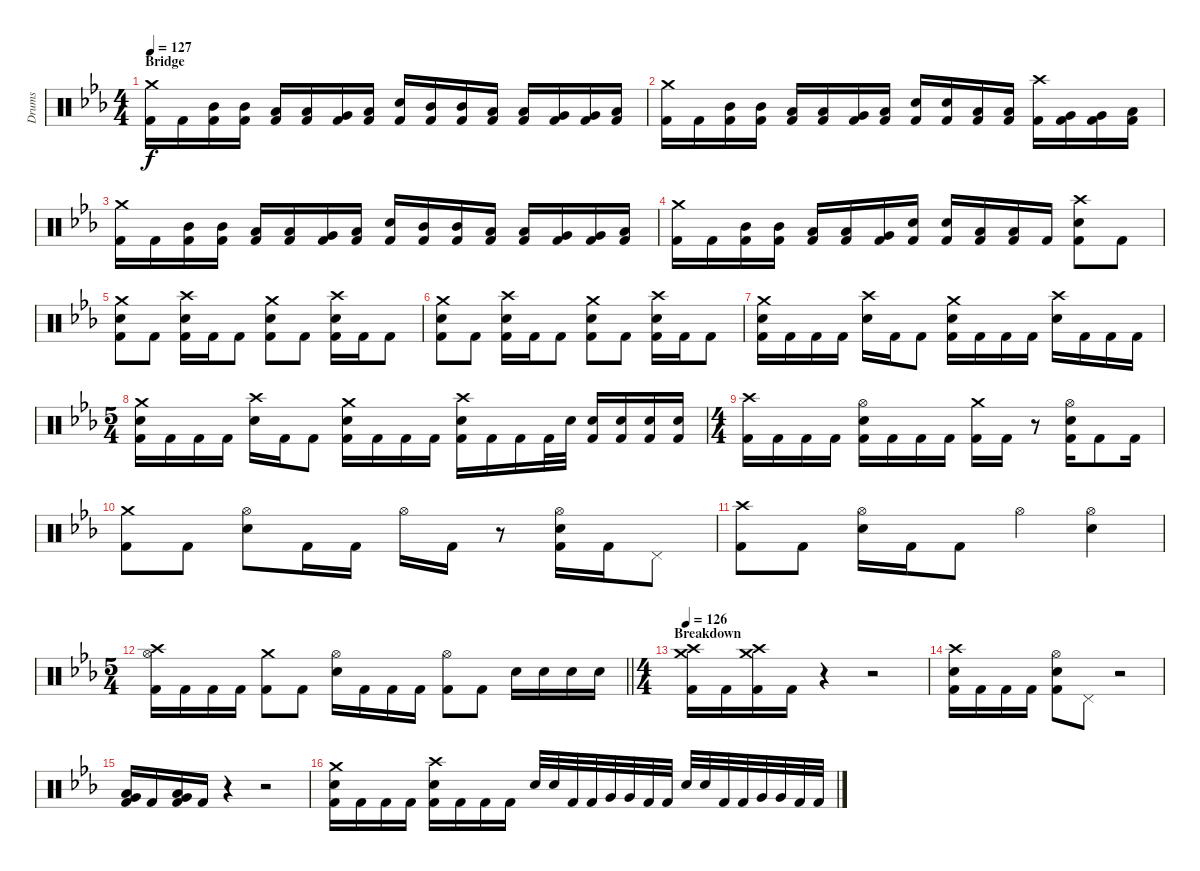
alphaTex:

\track ("Drums" "Drums") {instrument percussion}
\staff {score}
\articulation defaults
\ts (4 4)
\section ("" "Bridge")
\tempo 127
\clef neutral
\ks cminor
("Crash medium (hit)" "Kick (hit) 2").16{dy f} "Kick (hit) 2".16 ("Mid Tom (hit)" "Kick (hit) 2").16 ("Mid Tom (hit)" "Kick (hit) 2").16 ("Low Tom (hit)" "Kick (hit) 2").16 ("Low Tom (hit)" "Kick (hit) 2").16 ("Very Low Tom (hit)" "Kick (hit) 2").16 ("Low Floor Tom (hit)" "Kick (hit) 2").16 ("Snare (hit) 2" "Kick (hit) 2").16 ("Mid Tom (hit)" "Kick (hit) 2").16 ("Mid Tom (hit)" "Kick (hit) 2").16 ("Low Tom (hit)" "Kick (hit) 2").16 ("Low Tom (hit)" "Kick (hit) 2").16 ("Very Low Tom (hit)" "Kick (hit) 2").16 ("Very Low Tom (hit)" "Kick (hit) 2").16 ("Low Floor Tom (hit)" "Kick (hit) 2").16 |
("Crash medium (hit)" "Kick (hit) 2").16 "Kick (hit) 2".16 ("Mid Tom (hit)" "Kick (hit) 2").16 ("Mid Tom (hit)" "Kick (hit) 2").16 ("Low Tom (hit)" "Kick (hit) 2").16 ("Low Tom (hit)" "Kick (hit) 2").16 ("Very Low Tom (hit)" "Kick (hit) 2").16 ("Low Floor Tom (hit)" "Kick (hit) 2").16 ("Snare (hit) 2" "Kick (hit) 2").16 ("Snare (hit) 2" "Kick (hit) 2").16 ("Low Tom (hit)" "Kick (hit) 2").16 ("Low Tom (hit)" "Kick (hit) 2").16 ("Crash high (hit)" "Kick (hit) 2").16 ("Very Low Tom (hit)" "Kick (hit) 2").16 ("Very Low Tom (hit)" "Kick (hit) 2").16 ("Low Floor Tom (hit)" "Kick (hit) 2").16 |
("Crash medium (hit)" "Kick (hit) 2").16 "Kick (hit) 2".16 ("Mid Tom (hit)" "Kick (hit) 2").16 ("Mid Tom (hit)" "Kick (hit) 2").16 ("Low Tom (hit)" "Kick (hit) 2").16 ("Low Tom (hit)" "Kick (hit) 2").16 ("Very Low Tom (hit)" "Kick (hit) 2").16 ("Low Floor Tom (hit)" "Kick (hit) 2").16 ("Snare (hit) 2" "Kick (hit) 2").16 ("Mid Tom (hit)" "Kick (hit) 2").16 ("Mid Tom (hit)" "Kick (hit) 2").16 ("Low Tom (hit)" "Kick (hit) 2").16 ("Low Tom (hit)" "Kick (hit) 2").16 ("Very Low Tom (hit)" "Kick (hit) 2").16 ("Very Low Tom (hit)" "Kick (hit) 2").16 ("Low Floor Tom (hit)" "Kick (hit) 2").16 |
("Crash medium (hit)" "Kick (hit) 2").16 "Kick (hit) 2".16 ("Mid Tom (hit)" "Kick (hit) 2").16 ("Mid Tom (hit)" "Kick (hit) 2").16 ("Low Tom (hit)" "Kick (hit) 2").16 ("Low Tom (hit)" "Kick (hit) 2").16 ("Very Low Tom (hit)" "Kick (hit) 2").16 ("Snare (hit) 2" "Kick (hit) 2").16 ("Snare (hit) 2" "Kick (hit) 2").16 ("Low Tom (hit)" "Kick (hit) 2").16 ("Low Tom (hit)" "Kick (hit) 2").16 "Kick (hit) 2".16 ("Crash high (hit)" "Snare (hit) 2" "Kick (hit) 2").8 "Kick (hit) 2".8 |
("Crash medium (hit)" "Snare (hit) 2" "Kick (hit) 2").8 "Kick (hit) 2".8 ("Crash high (hit)" "Snare (hit) 2" "Kick (hit) 2").16 "Kick (hit) 2".16 "Kick (hit) 2".8 ("Crash medium (hit)" "Snare (hit) 2" "Kick (hit) 2").8 "Kick (hit) 2".8 ("Crash high (hit)" "Snare (hit) 2" "Kick (hit) 2").16 "Kick (hit) 2".16 "Kick (hit) 2".8 |
("Crash medium (hit)" "Snare (hit) 2" "Kick (hit) 2").8 "Kick (hit) 2".8 ("Crash high (hit)" "Snare (hit) 2" "Kick (hit) 2").16 "Kick (hit) 2".16 "Kick (hit) 2".8 ("Crash medium (hit)" "Snare (hit) 2" "Kick (hit) 2").8 "Kick (hit) 2".8 ("Crash high (hit)" "Snare (hit) 2" "Kick (hit) 2").16 "Kick (hit) 2".16 "Kick (hit) 2".8 |
("Crash medium (hit)" "Snare (hit) 2" "Kick (hit) 2").16 "Kick (hit) 2".16 "Kick (hit) 2".16 "Kick (hit) 2".16 ("Crash high (hit)" "Snare (hit) 2").16 "Kick (hit) 2".16 "Kick (hit) 2".8 ("Crash medium (hit)" "Snare (hit) 2" "Kick (hit) 2").16 "Kick (hit) 2".16 "Kick (hit) 2".16 "Kick (hit) 2".16 ("Crash high (hit)" "Snare (hit) 2").16 "Kick (hit) 2".16 "Kick (hit) 2".16 "Kick (hit) 2".16 |
\ts (5 4)
("Crash medium (hit)" "Snare (hit) 2" "Kick (hit) 2").16 "Kick (hit) 2".16 "Kick (hit) 2".16 "Kick (hit) 2".16 ("Crash high (hit)" "Snare (hit) 2").16 "Kick (hit) 2".16 "Kick (hit) 2".8 ("Crash medium (hit)" "Snare (hit) 2" "Kick (hit) 2").16 "Kick (hit) 2".16 "Kick (hit) 2".16 "Kick (hit) 2".16 ("Crash high (hit)" "Snare (hit) 2" "Kick (hit) 2").16 "Kick (hit) 2".16 "Kick (hit) 2".16 "Kick (hit) 2".32 "Snare (hit) 2".32 ("Snare (hit) 2" "Kick (hit) 2").16 ("Snare (hit) 2" "Kick (hit) 2").16 ("Snare (hit) 2" "Kick (hit) 2").16 ("Snare (hit) 2" "Kick (hit) 2").16 |
\ts (4 4)
("Crash high (hit)" "Kick (hit) 2").16 "Kick (hit) 2".16 "Kick (hit) 2".16 "Kick (hit) 2".16 ("Hi-Hat (open)" "Snare (hit) 2" "Kick (hit) 2").16 "Kick (hit) 2".16 "Kick (hit) 2".16 "Kick (hit) 2".16 ("Crash medium (hit)" "Kick (hit) 2").16 "Kick (hit) 2".16 r.8 ("Hi-Hat (open)" "Snare (hit) 2" "Kick (hit) 2").16 "Kick (hit) 2".8 "Kick (hit) 2".16 |
("Crash medium (hit)" "Kick (hit) 2").8 "Kick (hit) 2".8 ("Hi-Hat (open)" "Snare (hit) 2").8 "Kick (hit) 2".16 "Kick (hit) 2".16 "Hi-Hat (open)".16 "Kick (hit) 2".16 r.8 ("Hi-Hat (open)" "Snare (hit) 2" "Kick (hit) 2").16 "Kick (hit) 2".16 "Pedal Hi-Hat (hit)".8 |
("Crash high (hit)" "Kick (hit) 2").8 "Kick (hit) 2".8 ("Hi-Hat (open)" "Snare (hit) 2").16 "Kick (hit) 2".16 "Kick (hit) 2".8 "Hi-Hat (open)".4 ("Hi-Hat (open)" "Snare (hit) 2").4 |
\ts (5 4)
\barLineRight lightlight
("Crash high (hit)" "Hi-Hat (open)" "Kick (hit) 2").16 "Kick (hit) 2".16 "Kick (hit) 2".16 "Kick (hit) 2".16 ("Crash medium (hit)" "Kick (hit) 2").8 "Kick (hit) 2".8 ("Hi-Hat (open)" "Snare (hit) 2").16 "Kick (hit) 2".16 "Kick (hit) 2".16 "Kick (hit) 2".16 ("Hi-Hat (open)" "Kick (hit) 2").8 "Kick (hit) 2".8 "Snare (hit) 2".16 "Snare (hit) 2".16 "Snare (hit) 2".16 "Snare (hit) 2".16 |
\ts (4 4)
\section ("" "Breakdown")
\tempo 126
("Crash medium (hit)" "Crash high (hit)" "Kick (hit) 2").16 "Kick (hit) 2".16 ("Crash medium (hit)" "Crash high (hit)" "Kick (hit) 2").16 "Kick (hit) 2".16 r.4 r.2 |
("Crash high (hit)" "Snare (hit) 2" "Kick (hit) 2").16 "Kick (hit) 2".16 "Kick (hit) 2".16 "Kick (hit) 2".16 ("Hi-Hat (open)" "Snare (hit) 2" "Kick (hit) 2").8 "Pedal Hi-Hat (hit)".8 r.2 |
("Very Low Tom (hit)" "Low Floor Tom (hit)" "Kick (hit) 2").16 "Kick (hit) 2".16 ("Very Low Tom (hit)" "Low Floor Tom (hit)" "Kick (hit) 2").16 "Kick (hit) 2".16 r.4 r.2 |
("Crash medium (hit)" "Snare (hit) 2" "Kick (hit) 2").16 "Kick (hit) 2".16 "Kick (hit) 2".16 "Kick (hit) 2".16 ("Crash high (hit)" "Snare (hit) 2" "Kick (hit) 2").16 "Kick (hit) 2".16 "Kick (hit) 2".16 "Kick (hit) 2".16 "Snare (hit) 2".32 "Snare (hit) 2".32 "Kick (hit) 2".32 "Kick (hit) 2".32 "Very Low Tom (hit)".32 "Very Low Tom (hit)".32 "Kick (hit) 2".32 "Kick (hit) 2".32 "Snare (hit) 2".32 "Snare (hit) 2".32 "Kick (hit) 2".32 "Kick (hit) 2".32 "Very Low Tom (hit)".32 "Very Low Tom (hit)".32 "Kick (hit) 2".32 "Kick (hit) 2".32
